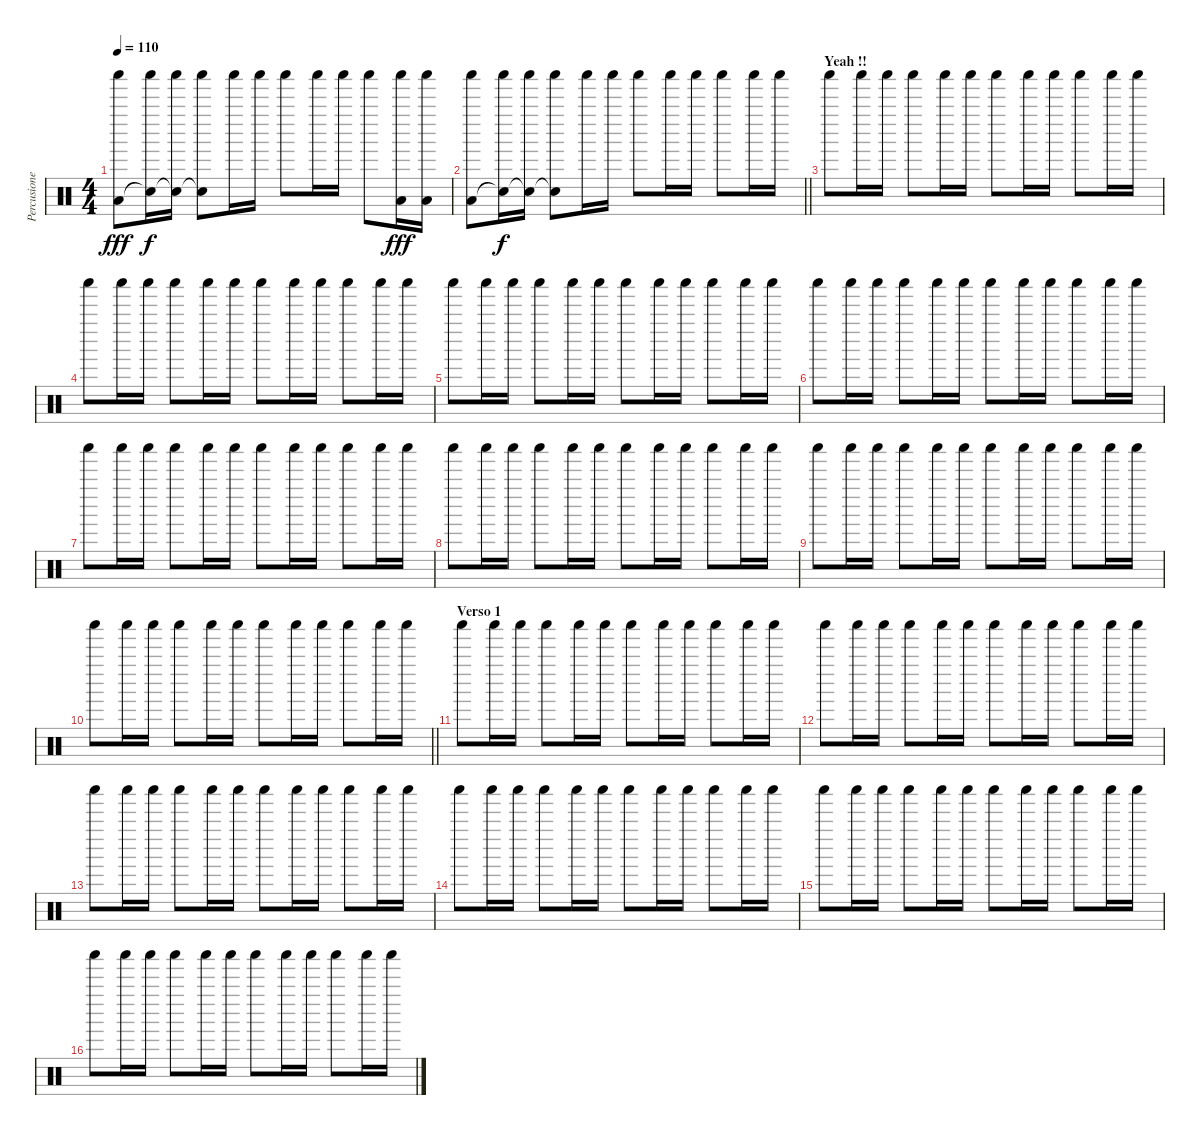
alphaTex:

\track ("Percusiones" "Percusione") {instrument percussion}
\staff {score}
\articulation defaults
\ts (4 4)
\tempo 110
\clef neutral
\ks c
("Shaker (hit)" "Low Tom (hit)").8{dy fff} ("Shaker (hit)" "Snare (hit)"{t}).16{dy f} ("Shaker (hit)" "Snare (hit)"{t}).16 ("Shaker (hit)" "Snare (hit)"{t}).8 "Shaker (hit)".16 "Shaker (hit)".16 "Shaker (hit)".8 "Shaker (hit)".16 "Shaker (hit)".16 "Shaker (hit)".8 ("Shaker (hit)" "Low Tom (hit)").16{dy fff} ("Shaker (hit)" "Low Tom (hit)").16 |
\barLineRight lightlight
("Shaker (hit)" "Low Tom (hit)").8 ("Shaker (hit)" "Snare (hit)"{t}).16{dy f} ("Shaker (hit)" "Snare (hit)"{t}).16 ("Shaker (hit)" "Snare (hit)"{t}).8 "Shaker (hit)".16 "Shaker (hit)".16 "Shaker (hit)".8 "Shaker (hit)".16 "Shaker (hit)".16 "Shaker (hit)".8 "Shaker (hit)".16 "Shaker (hit)".16 |
\section ("" "Yeah !!")
"Shaker (hit)".8 "Shaker (hit)".16 "Shaker (hit)".16 "Shaker (hit)".8 "Shaker (hit)".16 "Shaker (hit)".16 "Shaker (hit)".8 "Shaker (hit)".16 "Shaker (hit)".16 "Shaker (hit)".8 "Shaker (hit)".16 "Shaker (hit)".16 |
"Shaker (hit)".8 "Shaker (hit)".16 "Shaker (hit)".16 "Shaker (hit)".8 "Shaker (hit)".16 "Shaker (hit)".16 "Shaker (hit)".8 "Shaker (hit)".16 "Shaker (hit)".16 "Shaker (hit)".8 "Shaker (hit)".16 "Shaker (hit)".16 |
"Shaker (hit)".8 "Shaker (hit)".16 "Shaker (hit)".16 "Shaker (hit)".8 "Shaker (hit)".16 "Shaker (hit)".16 "Shaker (hit)".8 "Shaker (hit)".16 "Shaker (hit)".16 "Shaker (hit)".8 "Shaker (hit)".16 "Shaker (hit)".16 |
"Shaker (hit)".8 "Shaker (hit)".16 "Shaker (hit)".16 "Shaker (hit)".8 "Shaker (hit)".16 "Shaker (hit)".16 "Shaker (hit)".8 "Shaker (hit)".16 "Shaker (hit)".16 "Shaker (hit)".8 "Shaker (hit)".16 "Shaker (hit)".16 |
"Shaker (hit)".8 "Shaker (hit)".16 "Shaker (hit)".16 "Shaker (hit)".8 "Shaker (hit)".16 "Shaker (hit)".16 "Shaker (hit)".8 "Shaker (hit)".16 "Shaker (hit)".16 "Shaker (hit)".8 "Shaker (hit)".16 "Shaker (hit)".16 |
"Shaker (hit)".8 "Shaker (hit)".16 "Shaker (hit)".16 "Shaker (hit)".8 "Shaker (hit)".16 "Shaker (hit)".16 "Shaker (hit)".8 "Shaker (hit)".16 "Shaker (hit)".16 "Shaker (hit)".8 "Shaker (hit)".16 "Shaker (hit)".16 |
"Shaker (hit)".8 "Shaker (hit)".16 "Shaker (hit)".16 "Shaker (hit)".8 "Shaker (hit)".16 "Shaker (hit)".16 "Shaker (hit)".8 "Shaker (hit)".16 "Shaker (hit)".16 "Shaker (hit)".8 "Shaker (hit)".16 "Shaker (hit)".16 |
\barLineRight lightlight "Shaker (hit)".8 "Shaker (hit)".16 "Shaker (hit)".16 "Shaker (hit)".8 "Shaker (hit)".16 "Shaker (hit)".16 "Shaker (hit)".8 "Shaker (hit)".16 "Shaker (hit)".16 "Shaker (hit)".8 "Shaker (hit)".16 "Shaker (hit)".16
|
\section ("" "Verso 1")
"Shaker (hit)".8 "Shaker (hit)".16 "Shaker (hit)".16 "Shaker (hit)".8 "Shaker (hit)".16 "Shaker (hit)".16 "Shaker (hit)".8 "Shaker (hit)".16 "Shaker (hit)".16 "Shaker (hit)".8 "Shaker (hit)".16 "Shaker (hit)".16 |
"Shaker (hit)".8 "Shaker (hit)".16 "Shaker (hit)".16 "Shaker (hit)".8 "Shaker (hit)".16 "Shaker (hit)".16 "Shaker (hit)".8 "Shaker (hit)".16 "Shaker (hit)".16 "Shaker (hit)".8 "Shaker (hit)".16 "Shaker (hit)".16 |
"Shaker (hit)".8 "Shaker (hit)".16 "Shaker (hit)".16 "Shaker (hit)".8 "Shaker (hit)".16 "Shaker (hit)".16 "Shaker (hit)".8 "Shaker (hit)".16 "Shaker (hit)".16 "Shaker (hit)".8 "Shaker (hit)".16 "Shaker (hit)".16 |
"Shaker (hit)".8 "Shaker (hit)".16 "Shaker (hit)".16 "Shaker (hit)".8 "Shaker (hit)".16 "Shaker (hit)".16 "Shaker (hit)".8 "Shaker (hit)".16 "Shaker (hit)".16 "Shaker (hit)".8 "Shaker (hit)".16 "Shaker (hit)".16 |
"Shaker (hit)".8 "Shaker (hit)".16 "Shaker (hit)".16 "Shaker (hit)".8 "Shaker (hit)".16 "Shaker (hit)".16 "Shaker (hit)".8 "Shaker (hit)".16 "Shaker (hit)".16 "Shaker (hit)".8 "Shaker (hit)".16 "Shaker (hit)".16 |
"Shaker (hit)".8 "Shaker (hit)".16 "Shaker (hit)".16 "Shaker (hit)".8 "Shaker (hit)".16 "Shaker (hit)".16 "Shaker (hit)".8 "Shaker (hit)".16 "Shaker (hit)".16 "Shaker (hit)".8 "Shaker (hit)".16 "Shaker (hit)".16
